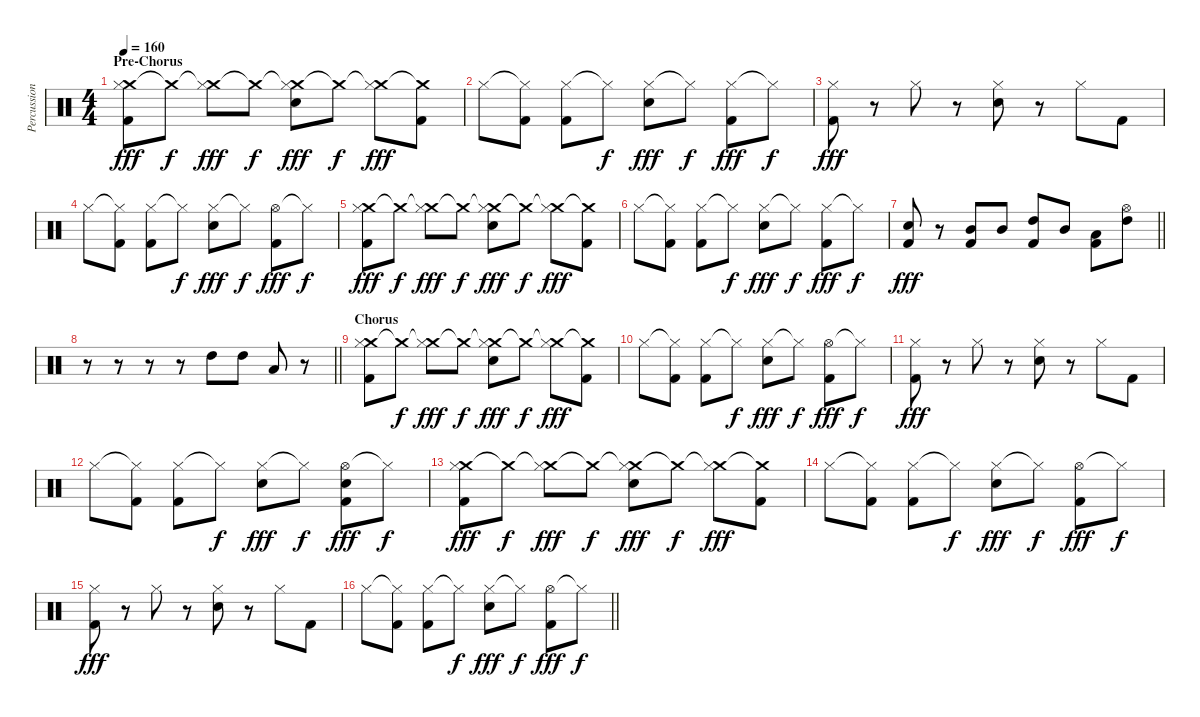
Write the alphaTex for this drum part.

\track ("Percussions" "Percussion") {instrument percussion}
\staff {score}
\articulation defaults
\ts (4 4)
\section ("" "Pre-Chorus")
\tempo 160
\clef neutral
\ks c
("Crash medium (hit)" "Hi-Hat (closed)" "Kick (hit) 2").8{dy fff} "Crash medium (hit)"{t}.8{dy f} ("Crash medium (hit)"{t} "Hi-Hat (closed)").8{dy fff} "Crash medium (hit)"{t}.8{dy f} ("Crash medium (hit)"{t} "Hi-Hat (closed)" "Snare (hit) 2").8{dy fff} "Crash medium (hit)"{t}.8{dy f} ("Crash medium (hit)"{t} "Hi-Hat (closed)").8{dy fff} ("Crash medium (hit)"{t} "Kick (hit) 2").8 |
"Hi-Hat (closed)".8 ("Hi-Hat (closed)"{t} "Kick (hit) 2").8 ("Hi-Hat (closed)" "Kick (hit) 2").8 "Hi-Hat (closed)"{t}.8{dy f} ("Hi-Hat (closed)" "Snare (hit) 2").8{dy fff} "Hi-Hat (closed)"{t}.8{dy f} ("Hi-Hat (closed)" "Kick (hit) 2").8{dy fff} "Hi-Hat (closed)"{t}.8{dy f} |
("Hi-Hat (closed)" "Kick (hit) 2").8{dy fff} r.8 "Hi-Hat (closed)".8 r.8 ("Hi-Hat (closed)" "Snare (hit) 2").8 r.8 "Hi-Hat (closed)".8 "Kick (hit) 2".8 |
"Hi-Hat (closed)".8 ("Hi-Hat (closed)"{t} "Kick (hit) 2").8 ("Hi-Hat (closed)" "Kick (hit) 2").8 "Hi-Hat (closed)"{t}.8{dy f} ("Hi-Hat (closed)" "Snare (hit) 2").8{dy fff} "Hi-Hat (closed)"{t}.8{dy f} ("Hi-Hat (open)" "Kick (hit) 2").8{dy fff} "Hi-Hat (closed)"{t}.8{dy f} |
("Crash medium (hit)" "Hi-Hat (closed)" "Kick (hit) 2").8{dy fff} "Crash medium (hit)"{t}.8{dy f} ("Crash medium (hit)"{t} "Hi-Hat (closed)").8{dy fff} "Crash medium (hit)"{t}.8{dy f} ("Crash medium (hit)"{t} "Hi-Hat (closed)" "Snare (hit) 2").8{dy fff} "Crash medium (hit)"{t}.8{dy f} ("Crash medium (hit)"{t} "Hi-Hat (closed)").8{dy fff} ("Crash medium (hit)"{t} "Kick (hit) 2").8 |
"Hi-Hat (closed)".8 ("Hi-Hat (closed)"{t} "Kick (hit) 2").8 ("Hi-Hat (closed)" "Kick (hit) 2").8 "Hi-Hat (closed)"{t}.8{dy f} ("Hi-Hat (closed)" "Snare (hit) 2").8{dy fff} "Hi-Hat (closed)"{t}.8{dy f} ("Hi-Hat (closed)" "Kick (hit) 2").8{dy fff} "Hi-Hat (closed)"{t}.8{dy f} |
\barLineRight lightlight
("Snare (hit) 2" "Kick (hit) 2").8{dy fff} r.8 ("Mid Tom (hit)" "Kick (hit) 2").8 "Mid Tom (hit)".8 ("High Tom (hit)" "Kick (hit) 2").8 "Mid Tom (hit)".8 ("Low Tom (hit)" "Kick (hit) 2").8 ("Hi-Hat (open)" "High Tom (hit)").8 |
\section ("" "")
\barLineRight lightlight
r.8 r.8 r.8 r.8 "High Tom (hit)".8 "High Tom (hit)".8 "Low Tom (hit)".8 r.8 |
\section ("" "Chorus")
("Crash medium (hit)" "Hi-Hat (closed)" "Kick (hit) 2").8 "Crash medium (hit)"{t}.8{dy f} ("Crash medium (hit)"{t} "Hi-Hat (closed)").8{dy fff} "Crash medium (hit)"{t}.8{dy f} ("Crash medium (hit)"{t} "Hi-Hat (closed)" "Snare (hit) 2").8{dy fff} "Crash medium (hit)"{t}.8{dy f} ("Crash medium (hit)"{t} "Hi-Hat (closed)").8{dy fff} ("Crash medium (hit)"{t} "Kick (hit) 2").8 |
"Hi-Hat (closed)".8 ("Hi-Hat (closed)"{t} "Kick (hit) 2").8 ("Hi-Hat (closed)" "Kick (hit) 2").8 "Hi-Hat (closed)"{t}.8{dy f} ("Hi-Hat (closed)" "Snare (hit) 2").8{dy fff} "Hi-Hat (closed)"{t}.8{dy f} ("Hi-Hat (open)" "Kick (hit) 2").8{dy fff} "Hi-Hat (closed)"{t}.8{dy f} |
("Hi-Hat (closed)" "Kick (hit) 2").8{dy fff} r.8 "Hi-Hat (closed)".8 r.8 ("Hi-Hat (closed)" "Snare (hit) 2").8 r.8 "Hi-Hat (closed)".8 "Kick (hit) 2".8 |
"Hi-Hat (closed)".8 ("Hi-Hat (closed)"{t} "Kick (hit) 2").8 ("Hi-Hat (closed)" "Kick (hit) 2").8 "Hi-Hat (closed)"{t}.8{dy f} ("Hi-Hat (closed)" "Snare (hit) 2").8{dy fff} "Hi-Hat (closed)"{t}.8{dy f} ("Hi-Hat (open)" "Snare (hit) 2" "Kick (hit) 2").8{dy fff} "Hi-Hat (closed)"{t}.8{dy f} |
("Crash medium (hit)" "Hi-Hat (closed)" "Kick (hit) 2").8{dy fff} "Crash medium (hit)"{t}.8{dy f} ("Crash medium (hit)"{t} "Hi-Hat (closed)").8{dy fff} "Crash medium (hit)"{t}.8{dy f} ("Crash medium (hit)"{t} "Hi-Hat (closed)" "Snare (hit) 2").8{dy fff} "Crash medium (hit)"{t}.8{dy f} ("Crash medium (hit)"{t} "Hi-Hat (closed)").8{dy fff} ("Crash medium (hit)"{t} "Kick (hit) 2").8 |
"Hi-Hat (closed)".8 ("Hi-Hat (closed)"{t} "Kick (hit) 2").8 ("Hi-Hat (closed)" "Kick (hit) 2").8 "Hi-Hat (closed)"{t}.8{dy f} ("Hi-Hat (closed)" "Snare (hit) 2").8{dy fff} "Hi-Hat (closed)"{t}.8{dy f} ("Hi-Hat (open)" "Kick (hit) 2").8{dy fff} "Hi-Hat (closed)"{t}.8{dy f} |
("Hi-Hat (closed)" "Kick (hit) 2").8{dy fff} r.8 "Hi-Hat (closed)".8 r.8 ("Hi-Hat (closed)" "Snare (hit) 2").8 r.8 "Hi-Hat (closed)".8 "Kick (hit) 2".8 |
\barLineRight lightlight "Hi-Hat (closed)".8
("Hi-Hat (closed)"{t} "Kick (hit) 2").8 ("Hi-Hat (closed)" "Kick (hit) 2").8 "Hi-Hat (closed)"{t}.8{dy f} ("Hi-Hat (closed)" "Snare (hit) 2").8{dy fff} "Hi-Hat (closed)"{t}.8{dy f} ("Hi-Hat (open)" "Kick (hit) 2").8{dy fff} "Hi-Hat (closed)"{t}.8{dy f}
